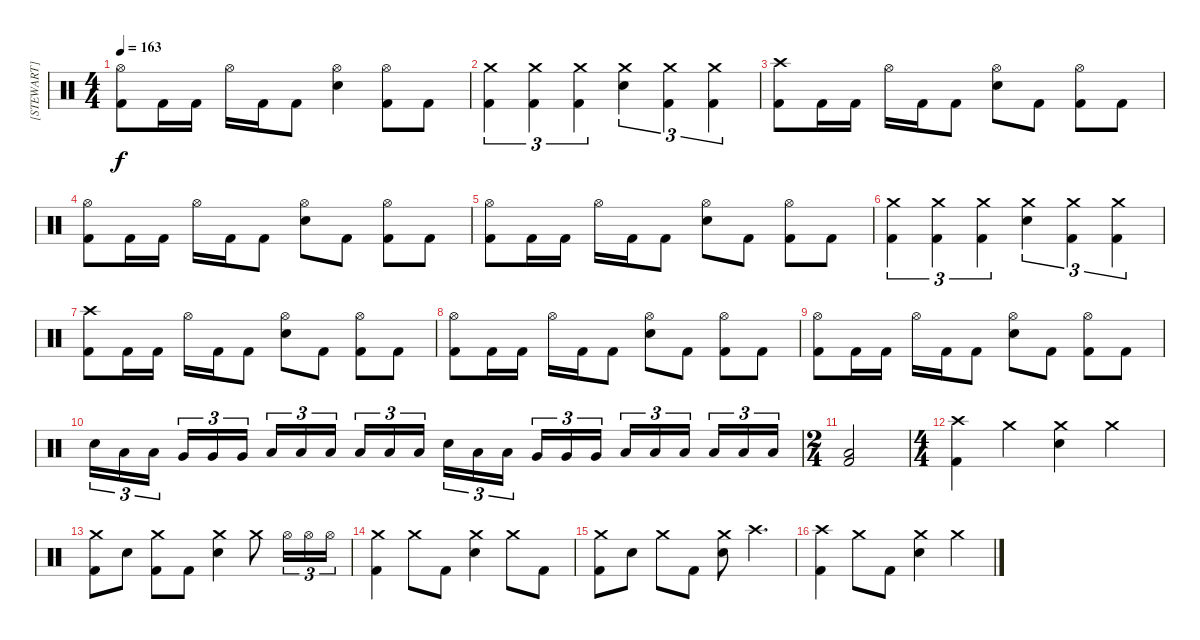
\track ("[STEWART]" "[STEWART]") {instrument percussion}
\staff {score}
\articulation defaults
\ts (4 4)
\tempo 163
\clef neutral
\ks c
("Hi-Hat (open)" "Kick (hit) 2").8{dy f} "Kick (hit) 2".16 "Kick (hit) 2".16 "Hi-Hat (open)".16 "Kick (hit) 2".16 "Kick (hit) 2".8 ("Hi-Hat (open)" "Electric Snare (hit)").4 ("Hi-Hat (open)" "Kick (hit) 2").8 "Kick (hit) 2".8 |
("Crash medium (hit)" "Kick (hit) 2").4{tu (3 2)} ("Crash medium (hit)" "Kick (hit) 2").4{tu (3 2)} ("Crash medium (hit)" "Kick (hit) 2").4{tu (3 2)} ("Crash medium (hit)" "Electric Snare (hit)").4{tu (3 2)} ("Crash medium (hit)" "Kick (hit) 2").4{tu (3 2)} ("Crash medium (hit)" "Kick (hit) 2").4{tu (3 2)} |
("Crash high (hit)" "Kick (hit) 2").8 "Kick (hit) 2".16 "Kick (hit) 2".16 "Hi-Hat (open)".16 "Kick (hit) 2".16 "Kick (hit) 2".8 ("Hi-Hat (open)" "Electric Snare (hit)").8 "Kick (hit) 2".8 ("Hi-Hat (open)" "Kick (hit) 2").8 "Kick (hit) 2".8 |
("Hi-Hat (open)" "Kick (hit) 2").8 "Kick (hit) 2".16 "Kick (hit) 2".16 "Hi-Hat (open)".16 "Kick (hit) 2".16 "Kick (hit) 2".8 ("Hi-Hat (open)" "Electric Snare (hit)").8 "Kick (hit) 2".8 ("Hi-Hat (open)" "Kick (hit) 2").8 "Kick (hit) 2".8 |
("Hi-Hat (open)" "Kick (hit) 2").8 "Kick (hit) 2".16 "Kick (hit) 2".16 "Hi-Hat (open)".16 "Kick (hit) 2".16 "Kick (hit) 2".8 ("Hi-Hat (open)" "Electric Snare (hit)").8 "Kick (hit) 2".8 ("Hi-Hat (open)" "Kick (hit) 2").8 "Kick (hit) 2".8 |
("Crash medium (hit)" "Kick (hit) 2").4{tu (3 2)} ("Crash medium (hit)" "Kick (hit) 2").4{tu (3 2)} ("Crash medium (hit)" "Kick (hit) 2").4{tu (3 2)} ("Crash medium (hit)" "Electric Snare (hit)").4{tu (3 2)} ("Crash medium (hit)" "Kick (hit) 2").4{tu (3 2)} ("Crash medium (hit)" "Kick (hit) 2").4{tu (3 2)} |
("Crash high (hit)" "Kick (hit) 2").8 "Kick (hit) 2".16 "Kick (hit) 2".16 "Hi-Hat (open)".16 "Kick (hit) 2".16 "Kick (hit) 2".8 ("Hi-Hat (open)" "Electric Snare (hit)").8 "Kick (hit) 2".8 ("Hi-Hat (open)" "Kick (hit) 2").8 "Kick (hit) 2".8 |
("Hi-Hat (open)" "Kick (hit) 2").8 "Kick (hit) 2".16 "Kick (hit) 2".16 "Hi-Hat (open)".16 "Kick (hit) 2".16 "Kick (hit) 2".8 ("Hi-Hat (open)" "Electric Snare (hit)").8 "Kick (hit) 2".8 ("Hi-Hat (open)" "Kick (hit) 2").8 "Kick (hit) 2".8 |
("Hi-Hat (open)" "Kick (hit) 2").8 "Kick (hit) 2".16 "Kick (hit) 2".16 "Hi-Hat (open)".16 "Kick (hit) 2".16 "Kick (hit) 2".8 ("Hi-Hat (open)" "Electric Snare (hit)").8 "Kick (hit) 2".8 ("Hi-Hat (open)" "Kick (hit) 2").8 "Kick (hit) 2".8 |
"Electric Snare (hit)".16{tu (3 2)} "Low Tom (hit)".16{tu (3 2)} "Low Tom (hit)".16{tu (3 2)} "Very Low Tom (hit)".16{tu (3 2)} "Very Low Tom (hit)".16{tu (3 2)} "Very Low Tom (hit)".16{tu (3 2)} "Low Floor Tom (hit)".16{tu (3 2)} "Low Floor Tom (hit)".16{tu (3 2)} "Low Floor Tom (hit)".16{tu (3 2)} "Low Floor Tom (hit)".16{tu (3 2)} "Low Floor Tom (hit)".16{tu (3 2)} "Low Floor Tom (hit)".16{tu (3 2)} "Electric Snare (hit)".16{tu (3 2)} "Low Tom (hit)".16{tu (3 2)} "Low Tom (hit)".16{tu (3 2)} "Very Low Tom (hit)".16{tu (3 2)} "Very Low Tom (hit)".16{tu (3 2)} "Very Low Tom (hit)".16{tu (3 2)} "Low Floor Tom (hit)".16{tu (3 2)} "Low Floor Tom (hit)".16{tu (3 2)} "Low Floor Tom (hit)".16{tu (3 2)} "Low Floor Tom (hit)".16{tu (3 2)} "Low Floor Tom (hit)".16{tu (3 2)} "Low Floor Tom (hit)".16{tu (3 2)} |
\ts (2 4)
("Low Floor Tom (hit)" "Kick (hit) 2").2 |
\ts (4 4)
("Crash high (hit)" "Kick (hit) 2").4 "Crash medium (hit)".4 ("Crash medium (hit)" "Electric Snare (hit)").4 "Crash medium (hit)".4 |
("Crash medium (hit)" "Kick (hit) 2").8 "Electric Snare (hit)".8 ("Crash medium (hit)" "Kick (hit) 2").8 "Kick (hit) 2".8 ("Crash medium (hit)" "Electric Snare (hit)").4 "Crash medium (hit)".8 "Hi-Hat (open)".16{tu (3 2)} "Hi-Hat (open)".16{tu (3 2)} "Hi-Hat (open)".16{tu (3 2)} |
("Crash medium (hit)" "Kick (hit) 2").4 "Crash medium (hit)".8 "Kick (hit) 2".8 ("Crash medium (hit)" "Electric Snare (hit)").4 "Crash medium (hit)".8 "Kick (hit) 2".8 |
("Crash medium (hit)" "Kick (hit) 2").8 "Electric Snare (hit)".8 "Crash medium (hit)".8 "Kick (hit) 2".8 ("Crash medium (hit)" "Electric Snare (hit)").8 "Crash high (hit)".4{d} |
("Crash high (hit)" "Kick (hit) 2").4 "Crash medium (hit)".8 "Kick (hit) 2".8 ("Crash medium (hit)" "Electric Snare (hit)").4 "Crash medium (hit)".4
